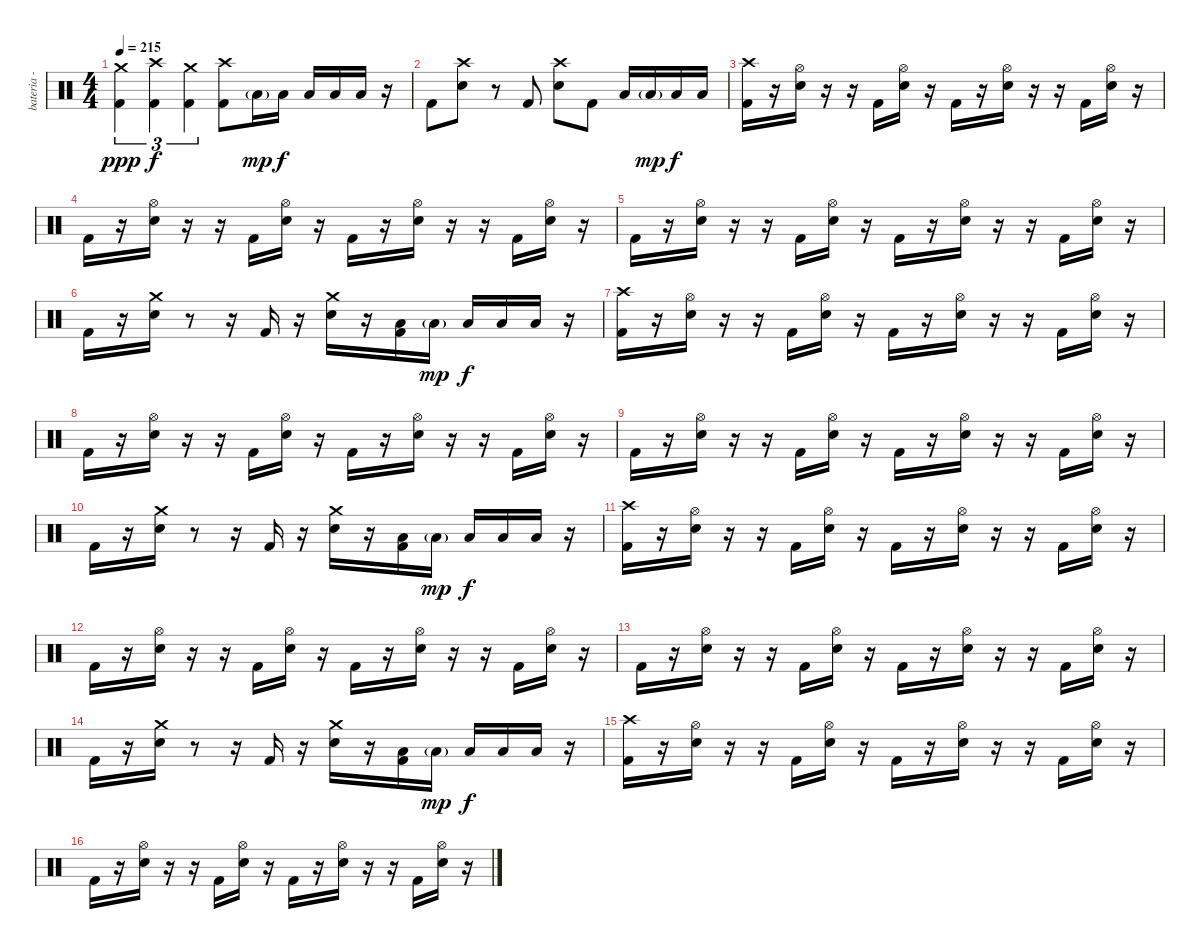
\track ("bateria - drums" "bateria - ") {instrument percussion}
\staff {score}
\articulation defaults
\ts (4 4)
\tempo 215
\clef neutral
\ks c
("Crash medium (hit)" "Kick (hit) 2").4{tu (3 2) dy ppp} ("Crash high (hit)" "Kick (hit) 2").4{tu (3 2) dy f} ("Crash medium (hit)" "Kick (hit) 2").4{tu (3 2)} ("Crash high (hit)" "Kick (hit) 2").8 "Low Floor Tom (hit)"{g}.16{dy mp} "Low Floor Tom (hit)".16{dy f} "Low Floor Tom (hit)".16 "Low Floor Tom (hit)".16 "Low Floor Tom (hit)".16 r.16 |
"Kick (hit) 2".8 ("Crash high (hit)" "Electric Snare (hit)").8 r.8 "Kick (hit) 2".8 ("Crash high (hit)" "Electric Snare (hit)").8 "Kick (hit) 2".8 "Low Floor Tom (hit)".16 "Low Floor Tom (hit)"{g}.16{dy mp} "Low Floor Tom (hit)".16{dy f} "Low Floor Tom (hit)".16 |
("Crash high (hit)" "Kick (hit) 2").16 r.16 ("Hi-Hat (open)" "Electric Snare (hit)").16 r.16 r.16 "Kick (hit) 2".16 ("Hi-Hat (open)" "Electric Snare (hit)").16 r.16 "Kick (hit) 2".16 r.16 ("Hi-Hat (open)" "Electric Snare (hit)").16 r.16 r.16 "Kick (hit) 2".16 ("Hi-Hat (open)" "Electric Snare (hit)").16 r.16 |
"Kick (hit) 2".16 r.16 ("Hi-Hat (open)" "Electric Snare (hit)").16 r.16 r.16 "Kick (hit) 2".16 ("Hi-Hat (open)" "Electric Snare (hit)").16 r.16 "Kick (hit) 2".16 r.16 ("Hi-Hat (open)" "Electric Snare (hit)").16 r.16 r.16 "Kick (hit) 2".16 ("Hi-Hat (open)" "Electric Snare (hit)").16 r.16 |
"Kick (hit) 2".16 r.16 ("Hi-Hat (open)" "Electric Snare (hit)").16 r.16 r.16 "Kick (hit) 2".16 ("Hi-Hat (open)" "Electric Snare (hit)").16 r.16 "Kick (hit) 2".16 r.16 ("Hi-Hat (open)" "Electric Snare (hit)").16 r.16 r.16 "Kick (hit) 2".16 ("Hi-Hat (open)" "Electric Snare (hit)").16 r.16 |
"Kick (hit) 2".16 r.16 ("Crash medium (hit)" "Electric Snare (hit)").16 r.8 r.16 "Kick (hit) 2".16 r.16 ("Crash medium (hit)" "Electric Snare (hit)").16 r.16 ("Low Floor Tom (hit)" "Kick (hit) 2").16 "Low Floor Tom (hit)"{g}.16{dy mp} "Low Floor Tom (hit)".16{dy f} "Low Floor Tom (hit)".16 "Low Floor Tom (hit)".16 r.16 |
("Crash high (hit)" "Kick (hit) 2").16 r.16 ("Hi-Hat (open)" "Electric Snare (hit)").16 r.16 r.16 "Kick (hit) 2".16 ("Hi-Hat (open)" "Electric Snare (hit)").16 r.16 "Kick (hit) 2".16 r.16 ("Hi-Hat (open)" "Electric Snare (hit)").16 r.16 r.16 "Kick (hit) 2".16 ("Hi-Hat (open)" "Electric Snare (hit)").16 r.16 |
"Kick (hit) 2".16 r.16 ("Hi-Hat (open)" "Electric Snare (hit)").16 r.16 r.16 "Kick (hit) 2".16 ("Hi-Hat (open)" "Electric Snare (hit)").16 r.16 "Kick (hit) 2".16 r.16 ("Hi-Hat (open)" "Electric Snare (hit)").16 r.16 r.16 "Kick (hit) 2".16 ("Hi-Hat (open)" "Electric Snare (hit)").16 r.16 |
"Kick (hit) 2".16 r.16 ("Hi-Hat (open)" "Electric Snare (hit)").16 r.16 r.16 "Kick (hit) 2".16 ("Hi-Hat (open)" "Electric Snare (hit)").16 r.16 "Kick (hit) 2".16 r.16 ("Hi-Hat (open)" "Electric Snare (hit)").16 r.16 r.16 "Kick (hit) 2".16 ("Hi-Hat (open)" "Electric Snare (hit)").16 r.16 |
"Kick (hit) 2".16 r.16 ("Crash medium (hit)" "Electric Snare (hit)").16 r.8 r.16 "Kick (hit) 2".16 r.16 ("Crash medium (hit)" "Electric Snare (hit)").16 r.16 ("Low Floor Tom (hit)" "Kick (hit) 2").16 "Low Floor Tom (hit)"{g}.16{dy mp} "Low Floor Tom (hit)".16{dy f} "Low Floor Tom (hit)".16 "Low Floor Tom (hit)".16 r.16 |
("Crash high (hit)" "Kick (hit) 2").16 r.16 ("Hi-Hat (open)" "Electric Snare (hit)").16 r.16 r.16 "Kick (hit) 2".16 ("Hi-Hat (open)" "Electric Snare (hit)").16 r.16 "Kick (hit) 2".16 r.16 ("Hi-Hat (open)" "Electric Snare (hit)").16 r.16 r.16 "Kick (hit) 2".16 ("Hi-Hat (open)" "Electric Snare (hit)").16 r.16 |
"Kick (hit) 2".16 r.16 ("Hi-Hat (open)" "Electric Snare (hit)").16 r.16 r.16 "Kick (hit) 2".16 ("Hi-Hat (open)" "Electric Snare (hit)").16 r.16 "Kick (hit) 2".16 r.16 ("Hi-Hat (open)" "Electric Snare (hit)").16 r.16 r.16 "Kick (hit) 2".16 ("Hi-Hat (open)" "Electric Snare (hit)").16 r.16 |
"Kick (hit) 2".16 r.16 ("Hi-Hat (open)" "Electric Snare (hit)").16 r.16 r.16 "Kick (hit) 2".16 ("Hi-Hat (open)" "Electric Snare (hit)").16 r.16 "Kick (hit) 2".16 r.16 ("Hi-Hat (open)" "Electric Snare (hit)").16 r.16 r.16 "Kick (hit) 2".16 ("Hi-Hat (open)" "Electric Snare (hit)").16 r.16 |
"Kick (hit) 2".16 r.16 ("Crash medium (hit)" "Electric Snare (hit)").16 r.8 r.16 "Kick (hit) 2".16 r.16 ("Crash medium (hit)" "Electric Snare (hit)").16 r.16 ("Low Floor Tom (hit)" "Kick (hit) 2").16 "Low Floor Tom (hit)"{g}.16{dy mp} "Low Floor Tom (hit)".16{dy f} "Low Floor Tom (hit)".16 "Low Floor Tom (hit)".16 r.16 |
("Crash high (hit)" "Kick (hit) 2").16 r.16 ("Hi-Hat (open)" "Electric Snare (hit)").16 r.16 r.16 "Kick (hit) 2".16 ("Hi-Hat (open)" "Electric Snare (hit)").16 r.16 "Kick (hit) 2".16 r.16 ("Hi-Hat (open)" "Electric Snare (hit)").16 r.16 r.16 "Kick (hit) 2".16 ("Hi-Hat (open)" "Electric Snare (hit)").16 r.16 |
"Kick (hit) 2".16 r.16 ("Hi-Hat (open)" "Electric Snare (hit)").16 r.16 r.16 "Kick (hit) 2".16 ("Hi-Hat (open)" "Electric Snare (hit)").16 r.16 "Kick (hit) 2".16 r.16 ("Hi-Hat (open)" "Electric Snare (hit)").16 r.16 r.16 "Kick (hit) 2".16 ("Hi-Hat (open)" "Electric Snare (hit)").16 r.16
